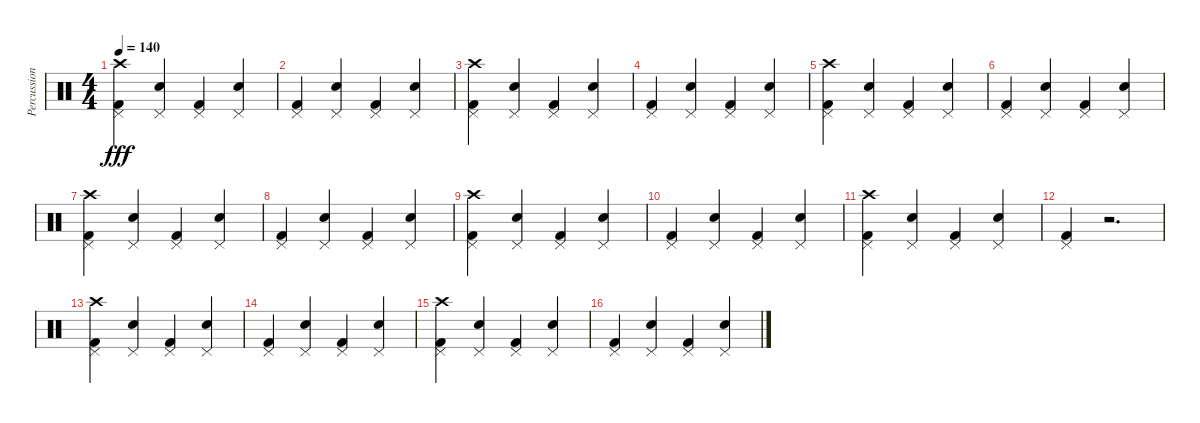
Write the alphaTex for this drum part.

\track ("Percussions" "Percussion") {instrument percussion}
\staff {score}
\articulation defaults
\ts (4 4)
\tempo 140
\clef neutral
\ks c
("Crash high (hit)" "Pedal Hi-Hat (hit)" "Kick (hit) 2").4{dy fff} ("Pedal Hi-Hat (hit)" "Snare (hit) 2").4 ("Pedal Hi-Hat (hit)" "Kick (hit) 2").4 ("Pedal Hi-Hat (hit)" "Snare (hit) 2").4 |
("Pedal Hi-Hat (hit)" "Kick (hit) 2").4 ("Pedal Hi-Hat (hit)" "Snare (hit) 2").4 ("Pedal Hi-Hat (hit)" "Kick (hit) 2").4 ("Pedal Hi-Hat (hit)" "Snare (hit) 2").4 |
("Crash high (hit)" "Pedal Hi-Hat (hit)" "Kick (hit) 2").4 ("Pedal Hi-Hat (hit)" "Snare (hit) 2").4 ("Pedal Hi-Hat (hit)" "Kick (hit) 2").4 ("Pedal Hi-Hat (hit)" "Snare (hit) 2").4 |
("Pedal Hi-Hat (hit)" "Kick (hit) 2").4 ("Pedal Hi-Hat (hit)" "Snare (hit) 2").4 ("Pedal Hi-Hat (hit)" "Kick (hit) 2").4 ("Pedal Hi-Hat (hit)" "Snare (hit) 2").4 |
("Crash high (hit)" "Pedal Hi-Hat (hit)" "Kick (hit) 2").4 ("Pedal Hi-Hat (hit)" "Snare (hit) 2").4 ("Pedal Hi-Hat (hit)" "Kick (hit) 2").4 ("Pedal Hi-Hat (hit)" "Snare (hit) 2").4 |
("Pedal Hi-Hat (hit)" "Kick (hit) 2").4 ("Pedal Hi-Hat (hit)" "Snare (hit) 2").4 ("Pedal Hi-Hat (hit)" "Kick (hit) 2").4 ("Pedal Hi-Hat (hit)" "Snare (hit) 2").4 |
("Crash high (hit)" "Pedal Hi-Hat (hit)" "Kick (hit) 2").4 ("Pedal Hi-Hat (hit)" "Snare (hit) 2").4 ("Pedal Hi-Hat (hit)" "Kick (hit) 2").4 ("Pedal Hi-Hat (hit)" "Snare (hit) 2").4 |
("Pedal Hi-Hat (hit)" "Kick (hit) 2").4 ("Pedal Hi-Hat (hit)" "Snare (hit) 2").4 ("Pedal Hi-Hat (hit)" "Kick (hit) 2").4 ("Pedal Hi-Hat (hit)" "Snare (hit) 2").4 |
("Crash high (hit)" "Pedal Hi-Hat (hit)" "Kick (hit) 2").4 ("Pedal Hi-Hat (hit)" "Snare (hit) 2").4 ("Pedal Hi-Hat (hit)" "Kick (hit) 2").4 ("Pedal Hi-Hat (hit)" "Snare (hit) 2").4 |
("Pedal Hi-Hat (hit)" "Kick (hit) 2").4 ("Pedal Hi-Hat (hit)" "Snare (hit) 2").4 ("Pedal Hi-Hat (hit)" "Kick (hit) 2").4 ("Pedal Hi-Hat (hit)" "Snare (hit) 2").4 |
("Crash high (hit)" "Pedal Hi-Hat (hit)" "Kick (hit) 2").4 ("Pedal Hi-Hat (hit)" "Snare (hit) 2").4 ("Pedal Hi-Hat (hit)" "Kick (hit) 2").4 ("Pedal Hi-Hat (hit)" "Snare (hit) 2").4 |
("Pedal Hi-Hat (hit)" "Kick (hit) 2").4 r.2{d} |
("Crash high (hit)" "Pedal Hi-Hat (hit)" "Kick (hit) 2").4 ("Pedal Hi-Hat (hit)" "Snare (hit) 2").4 ("Pedal Hi-Hat (hit)" "Kick (hit) 2").4 ("Pedal Hi-Hat (hit)" "Snare (hit) 2").4 |
("Pedal Hi-Hat (hit)" "Kick (hit) 2").4 ("Pedal Hi-Hat (hit)" "Snare (hit) 2").4 ("Pedal Hi-Hat (hit)" "Kick (hit) 2").4 ("Pedal Hi-Hat (hit)" "Snare (hit) 2").4 |
("Crash high (hit)" "Pedal Hi-Hat (hit)" "Kick (hit) 2").4 ("Pedal Hi-Hat (hit)" "Snare (hit) 2").4 ("Pedal Hi-Hat (hit)" "Kick (hit) 2").4 ("Pedal Hi-Hat (hit)" "Snare (hit) 2").4 |
("Pedal Hi-Hat (hit)" "Kick (hit) 2").4 ("Pedal Hi-Hat (hit)" "Snare (hit) 2").4 ("Pedal Hi-Hat (hit)" "Kick (hit) 2").4 ("Pedal Hi-Hat (hit)" "Snare (hit) 2").4
